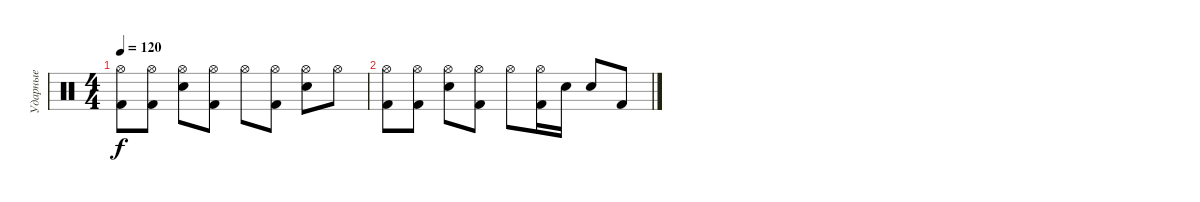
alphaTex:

\track ("Ударные" "Ударные") {instrument percussion}
\staff {score}
\articulation defaults
\ts (4 4)
\tempo 120
\clef neutral
\ks c
("Hi-Hat (open)" "Kick (hit) 2").8{dy f} ("Hi-Hat (open)" "Kick (hit) 2").8 ("Hi-Hat (open)" "Snare (hit) 2").8 ("Hi-Hat (open)" "Kick (hit) 2").8 "Hi-Hat (open)".8 ("Hi-Hat (open)" "Kick (hit) 2").8 ("Hi-Hat (open)" "Snare (hit) 2").8 "Hi-Hat (open)".8 |
("Hi-Hat (open)" "Kick (hit) 2").8 ("Hi-Hat (open)" "Kick (hit) 2").8 ("Hi-Hat (open)" "Snare (hit) 2").8 ("Hi-Hat (open)" "Kick (hit) 2").8 "Hi-Hat (open)".8 ("Hi-Hat (open)" "Kick (hit) 2").16 "Snare (hit) 2".16 "Snare (hit) 2".8 "Kick (hit) 2".8
